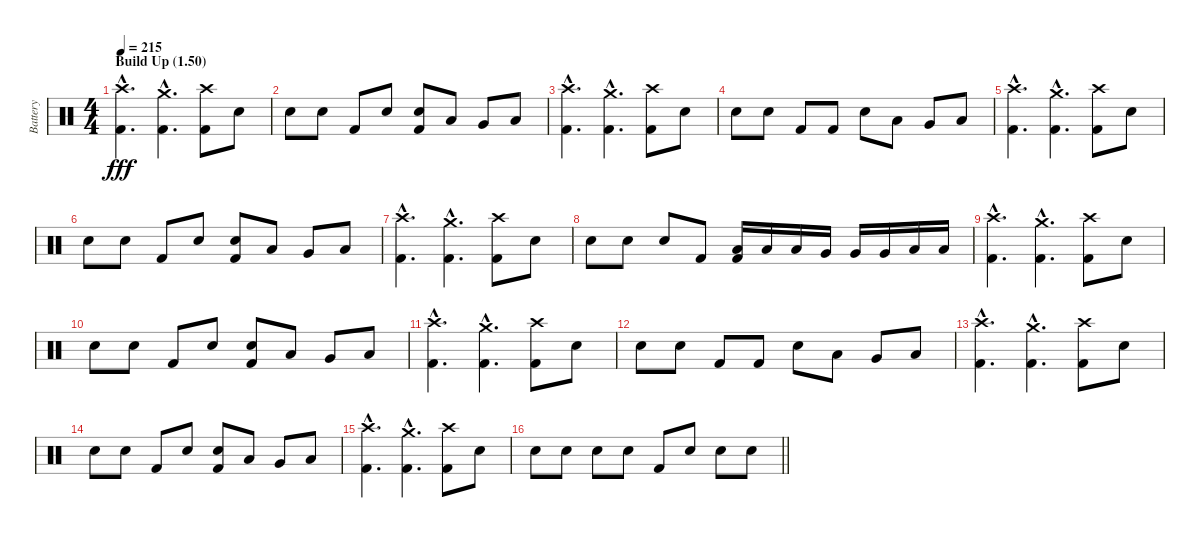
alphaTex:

\track ("Battery" "Battery") {instrument percussion}
\staff {score}
\articulation defaults
\ts (4 4)
\section ("" "Build Up (1.50)")
\tempo 215
\clef neutral
\ks c
("Crash high (hit)"{hac} "Kick (hit) 2"{hac}).4{d dy fff} ("Crash medium (hit)"{hac} "Kick (hit) 2"{hac}).4{d} ("Crash high (hit)" "Kick (hit) 2").8 "Electric Snare (hit)".8 |
"Electric Snare (hit)".8 "Electric Snare (hit)".8 "Kick (hit) 2".8 "Electric Snare (hit)".8 ("Electric Snare (hit)" "Kick (hit) 2").8 "Low Tom (hit)".8 "Very Low Tom (hit)".8 "Low Floor Tom (hit)".8 |
("Crash high (hit)"{hac} "Kick (hit) 2"{hac}).4{d} ("Crash medium (hit)"{hac} "Kick (hit) 2"{hac}).4{d} ("Crash high (hit)" "Kick (hit) 2").8 "Electric Snare (hit)".8 |
"Electric Snare (hit)".8 "Electric Snare (hit)".8 "Kick (hit) 2".8 "Kick (hit) 2".8 "Electric Snare (hit)".8 "Low Tom (hit)".8 "Very Low Tom (hit)".8 "Low Floor Tom (hit)".8 |
("Crash high (hit)"{hac} "Kick (hit) 2"{hac}).4{d} ("Crash medium (hit)"{hac} "Kick (hit) 2"{hac}).4{d} ("Crash high (hit)" "Kick (hit) 2").8 "Electric Snare (hit)".8 |
"Electric Snare (hit)".8 "Electric Snare (hit)".8 "Kick (hit) 2".8 "Electric Snare (hit)".8 ("Electric Snare (hit)" "Kick (hit) 2").8 "Low Tom (hit)".8 "Very Low Tom (hit)".8 "Low Floor Tom (hit)".8 |
("Crash high (hit)"{hac} "Kick (hit) 2"{hac}).4{d} ("Crash medium (hit)"{hac} "Kick (hit) 2"{hac}).4{d} ("Crash high (hit)" "Kick (hit) 2").8 "Electric Snare (hit)".8 |
"Electric Snare (hit)".8 "Electric Snare (hit)".8 "Electric Snare (hit)".8 "Kick (hit) 2".8 ("Low Tom (hit)" "Kick (hit) 2").16 "Low Tom (hit)".16 "Low Tom (hit)".16 "Very Low Tom (hit)".16 "Very Low Tom (hit)".16 "Very Low Tom (hit)".16 "Low Floor Tom (hit)".16 "Low Floor Tom (hit)".16 |
("Crash high (hit)"{hac} "Kick (hit) 2"{hac}).4{d} ("Crash medium (hit)"{hac} "Kick (hit) 2"{hac}).4{d} ("Crash high (hit)" "Kick (hit) 2").8 "Electric Snare (hit)".8 |
"Electric Snare (hit)".8 "Electric Snare (hit)".8 "Kick (hit) 2".8 "Electric Snare (hit)".8 ("Electric Snare (hit)" "Kick (hit) 2").8 "Low Tom (hit)".8 "Very Low Tom (hit)".8 "Low Floor Tom (hit)".8 |
("Crash high (hit)"{hac} "Kick (hit) 2"{hac}).4{d} ("Crash medium (hit)"{hac} "Kick (hit) 2"{hac}).4{d} ("Crash high (hit)" "Kick (hit) 2").8 "Electric Snare (hit)".8 |
"Electric Snare (hit)".8 "Electric Snare (hit)".8 "Kick (hit) 2".8 "Kick (hit) 2".8 "Electric Snare (hit)".8 "Low Tom (hit)".8 "Very Low Tom (hit)".8 "Low Floor Tom (hit)".8 |
("Crash high (hit)"{hac} "Kick (hit) 2"{hac}).4{d} ("Crash medium (hit)"{hac} "Kick (hit) 2"{hac}).4{d} ("Crash high (hit)" "Kick (hit) 2").8 "Electric Snare (hit)".8 |
"Electric Snare (hit)".8 "Electric Snare (hit)".8 "Kick (hit) 2".8 "Electric Snare (hit)".8 ("Electric Snare (hit)" "Kick (hit) 2").8 "Low Tom (hit)".8 "Very Low Tom (hit)".8 "Low Floor Tom (hit)".8 |
("Crash high (hit)"{hac} "Kick (hit) 2"{hac}).4{d} ("Crash medium (hit)"{hac} "Kick (hit) 2"{hac}).4{d} ("Crash high (hit)" "Kick (hit) 2").8 "Electric Snare (hit)".8 |
\barLineRight lightlight "Electric Snare (hit)".8 "Electric Snare (hit)".8 "Electric Snare (hit)".8 "Electric Snare (hit)".8 "Kick (hit) 2".8 "Electric Snare (hit)".8 "Electric Snare (hit)".8 "Electric Snare (hit)".8
